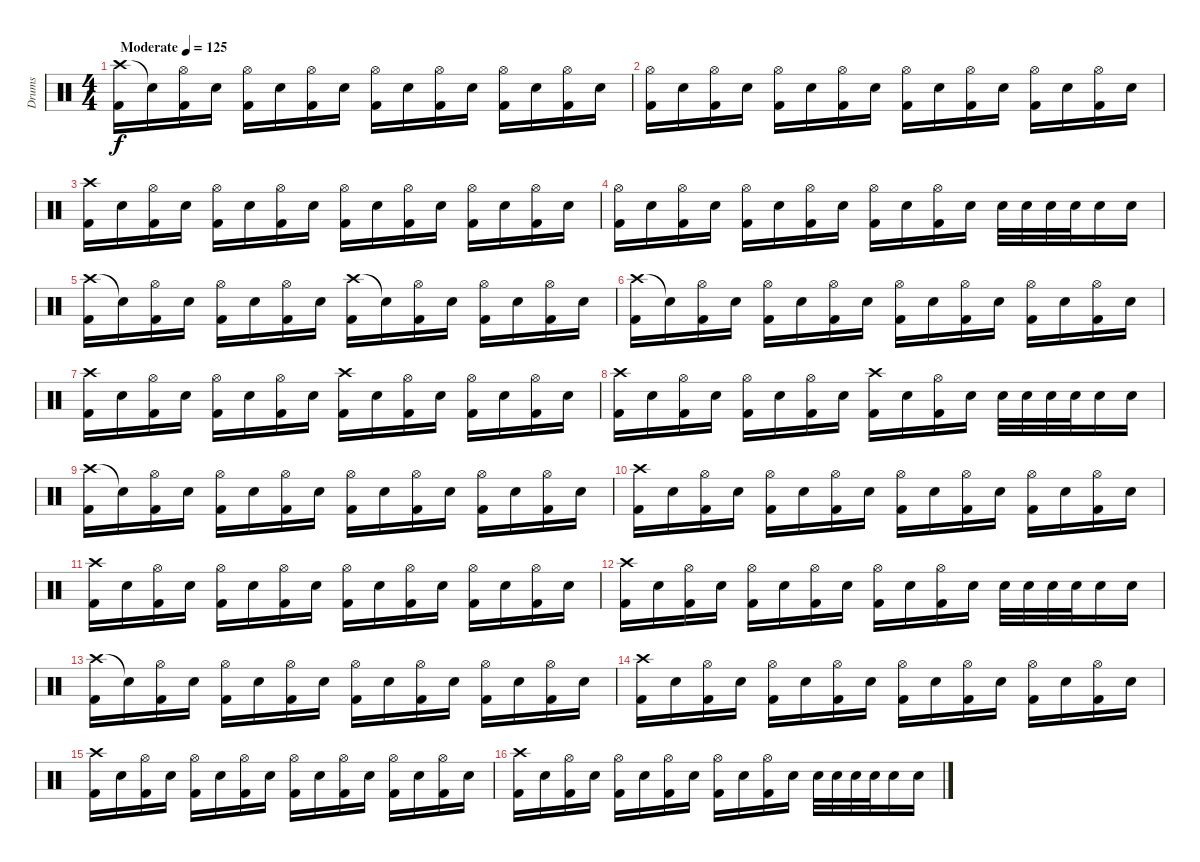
\track ("Drums" "Drums") {instrument percussion}
\staff {score}
\articulation defaults
\ts (4 4)
\tempo (125 "Moderate")
\clef neutral
\ks c
("Crash high (hit)" "Kick (hit) 2").16{dy f} "Snare (hit)"{t}.16 ("Hi-Hat (open)" "Kick (hit) 2").16 "Electric Snare (hit)".16 ("Hi-Hat (open)" "Kick (hit) 2").16 "Electric Snare (hit)".16 ("Hi-Hat (open)" "Kick (hit) 2").16 "Electric Snare (hit)".16 ("Hi-Hat (open)" "Kick (hit) 2").16 "Electric Snare (hit)".16 ("Hi-Hat (open)" "Kick (hit) 2").16 "Electric Snare (hit)".16 ("Hi-Hat (open)" "Kick (hit) 2").16 "Electric Snare (hit)".16 ("Hi-Hat (open)" "Kick (hit) 2").16 "Electric Snare (hit)".16 |
("Hi-Hat (open)" "Kick (hit) 2").16 "Electric Snare (hit)".16 ("Hi-Hat (open)" "Kick (hit) 2").16 "Electric Snare (hit)".16 ("Hi-Hat (open)" "Kick (hit) 2").16 "Electric Snare (hit)".16 ("Hi-Hat (open)" "Kick (hit) 2").16 "Electric Snare (hit)".16 ("Hi-Hat (open)" "Kick (hit) 2").16 "Electric Snare (hit)".16 ("Hi-Hat (open)" "Kick (hit) 2").16 "Electric Snare (hit)".16 ("Hi-Hat (open)" "Kick (hit) 2").16 "Electric Snare (hit)".16 ("Hi-Hat (open)" "Kick (hit) 2").16 "Electric Snare (hit)".16 |
("Crash high (hit)" "Kick (hit) 2").16 "Electric Snare (hit)".16 ("Hi-Hat (open)" "Kick (hit) 2").16 "Electric Snare (hit)".16 ("Hi-Hat (open)" "Kick (hit) 2").16 "Electric Snare (hit)".16 ("Hi-Hat (open)" "Kick (hit) 2").16 "Electric Snare (hit)".16 ("Hi-Hat (open)" "Kick (hit) 2").16 "Electric Snare (hit)".16 ("Hi-Hat (open)" "Kick (hit) 2").16 "Electric Snare (hit)".16 ("Hi-Hat (open)" "Kick (hit) 2").16 "Electric Snare (hit)".16 ("Hi-Hat (open)" "Kick (hit) 2").16 "Electric Snare (hit)".16 |
("Hi-Hat (open)" "Kick (hit) 2").16 "Electric Snare (hit)".16 ("Hi-Hat (open)" "Kick (hit) 2").16 "Electric Snare (hit)".16 ("Hi-Hat (open)" "Kick (hit) 2").16 "Electric Snare (hit)".16 ("Hi-Hat (open)" "Kick (hit) 2").16 "Electric Snare (hit)".16 ("Hi-Hat (open)" "Kick (hit) 2").16 "Electric Snare (hit)".16 ("Hi-Hat (open)" "Kick (hit) 2").16 "Electric Snare (hit)".16 "Electric Snare (hit)".32 "Electric Snare (hit)".32 "Electric Snare (hit)".32 "Electric Snare (hit)".32 "Electric Snare (hit)".16 "Electric Snare (hit)".16 |
("Crash high (hit)" "Kick (hit) 2").16 "Snare (hit)"{t}.16 ("Hi-Hat (open)" "Kick (hit) 2").16 "Electric Snare (hit)".16 ("Hi-Hat (open)" "Kick (hit) 2").16 "Electric Snare (hit)".16 ("Hi-Hat (open)" "Kick (hit) 2").16 "Electric Snare (hit)".16 ("Crash high (hit)" "Kick (hit) 2").16 "Snare (hit)"{t}.16 ("Hi-Hat (open)" "Kick (hit) 2").16 "Electric Snare (hit)".16 ("Hi-Hat (open)" "Kick (hit) 2").16 "Electric Snare (hit)".16 ("Hi-Hat (open)" "Kick (hit) 2").16 "Electric Snare (hit)".16 |
("Crash high (hit)" "Kick (hit) 2").16 "Snare (hit)"{t}.16 ("Hi-Hat (open)" "Kick (hit) 2").16 "Electric Snare (hit)".16 ("Hi-Hat (open)" "Kick (hit) 2").16 "Electric Snare (hit)".16 ("Hi-Hat (open)" "Kick (hit) 2").16 "Electric Snare (hit)".16 ("Hi-Hat (open)" "Kick (hit) 2").16 "Electric Snare (hit)".16 ("Hi-Hat (open)" "Kick (hit) 2").16 "Electric Snare (hit)".16 ("Hi-Hat (open)" "Kick (hit) 2").16 "Electric Snare (hit)".16 ("Hi-Hat (open)" "Kick (hit) 2").16 "Electric Snare (hit)".16 |
("Crash high (hit)" "Kick (hit) 2").16 "Electric Snare (hit)".16 ("Hi-Hat (open)" "Kick (hit) 2").16 "Electric Snare (hit)".16 ("Hi-Hat (open)" "Kick (hit) 2").16 "Electric Snare (hit)".16 ("Hi-Hat (open)" "Kick (hit) 2").16 "Electric Snare (hit)".16 ("Crash high (hit)" "Kick (hit) 2").16 "Electric Snare (hit)".16 ("Hi-Hat (open)" "Kick (hit) 2").16 "Electric Snare (hit)".16 ("Hi-Hat (open)" "Kick (hit) 2").16 "Electric Snare (hit)".16 ("Hi-Hat (open)" "Kick (hit) 2").16 "Electric Snare (hit)".16 |
("Crash high (hit)" "Kick (hit) 2").16 "Electric Snare (hit)".16 ("Hi-Hat (open)" "Kick (hit) 2").16 "Electric Snare (hit)".16 ("Hi-Hat (open)" "Kick (hit) 2").16 "Electric Snare (hit)".16 ("Hi-Hat (open)" "Kick (hit) 2").16 "Electric Snare (hit)".16 ("Crash high (hit)" "Kick (hit) 2").16 "Electric Snare (hit)".16 ("Hi-Hat (open)" "Kick (hit) 2").16 "Electric Snare (hit)".16 "Electric Snare (hit)".32 "Electric Snare (hit)".32 "Electric Snare (hit)".32 "Electric Snare (hit)".32 "Electric Snare (hit)".16 "Electric Snare (hit)".16 |
("Crash high (hit)" "Kick (hit) 2").16 "Snare (hit)"{t}.16 ("Hi-Hat (open)" "Kick (hit) 2").16 "Electric Snare (hit)".16 ("Hi-Hat (open)" "Kick (hit) 2").16 "Electric Snare (hit)".16 ("Hi-Hat (open)" "Kick (hit) 2").16 "Electric Snare (hit)".16 ("Hi-Hat (open)" "Kick (hit) 2").16 "Electric Snare (hit)".16 ("Hi-Hat (open)" "Kick (hit) 2").16 "Electric Snare (hit)".16 ("Hi-Hat (open)" "Kick (hit) 2").16 "Electric Snare (hit)".16 ("Hi-Hat (open)" "Kick (hit) 2").16 "Electric Snare (hit)".16 |
("Crash high (hit)" "Kick (hit) 2").16 "Electric Snare (hit)".16 ("Hi-Hat (open)" "Kick (hit) 2").16 "Electric Snare (hit)".16 ("Hi-Hat (open)" "Kick (hit) 2").16 "Electric Snare (hit)".16 ("Hi-Hat (open)" "Kick (hit) 2").16 "Electric Snare (hit)".16 ("Hi-Hat (open)" "Kick (hit) 2").16 "Electric Snare (hit)".16 ("Hi-Hat (open)" "Kick (hit) 2").16 "Electric Snare (hit)".16 ("Hi-Hat (open)" "Kick (hit) 2").16 "Electric Snare (hit)".16 ("Hi-Hat (open)" "Kick (hit) 2").16 "Electric Snare (hit)".16 |
("Crash high (hit)" "Kick (hit) 2").16 "Electric Snare (hit)".16 ("Hi-Hat (open)" "Kick (hit) 2").16 "Electric Snare (hit)".16 ("Hi-Hat (open)" "Kick (hit) 2").16 "Electric Snare (hit)".16 ("Hi-Hat (open)" "Kick (hit) 2").16 "Electric Snare (hit)".16 ("Hi-Hat (open)" "Kick (hit) 2").16 "Electric Snare (hit)".16 ("Hi-Hat (open)" "Kick (hit) 2").16 "Electric Snare (hit)".16 ("Hi-Hat (open)" "Kick (hit) 2").16 "Electric Snare (hit)".16 ("Hi-Hat (open)" "Kick (hit) 2").16 "Electric Snare (hit)".16 |
("Crash high (hit)" "Kick (hit) 2").16 "Electric Snare (hit)".16 ("Hi-Hat (open)" "Kick (hit) 2").16 "Electric Snare (hit)".16 ("Hi-Hat (open)" "Kick (hit) 2").16 "Electric Snare (hit)".16 ("Hi-Hat (open)" "Kick (hit) 2").16 "Electric Snare (hit)".16 ("Hi-Hat (open)" "Kick (hit) 2").16 "Electric Snare (hit)".16 ("Hi-Hat (open)" "Kick (hit) 2").16 "Electric Snare (hit)".16 "Electric Snare (hit)".32 "Electric Snare (hit)".32 "Electric Snare (hit)".32 "Electric Snare (hit)".32 "Electric Snare (hit)".16 "Electric Snare (hit)".16 |
("Crash high (hit)" "Kick (hit) 2").16 "Snare (hit)"{t}.16 ("Hi-Hat (open)" "Kick (hit) 2").16 "Electric Snare (hit)".16 ("Hi-Hat (open)" "Kick (hit) 2").16 "Electric Snare (hit)".16 ("Hi-Hat (open)" "Kick (hit) 2").16 "Electric Snare (hit)".16 ("Hi-Hat (open)" "Kick (hit) 2").16 "Electric Snare (hit)".16 ("Hi-Hat (open)" "Kick (hit) 2").16 "Electric Snare (hit)".16 ("Hi-Hat (open)" "Kick (hit) 2").16 "Electric Snare (hit)".16 ("Hi-Hat (open)" "Kick (hit) 2").16 "Electric Snare (hit)".16 |
("Crash high (hit)" "Kick (hit) 2").16 "Electric Snare (hit)".16 ("Hi-Hat (open)" "Kick (hit) 2").16 "Electric Snare (hit)".16 ("Hi-Hat (open)" "Kick (hit) 2").16 "Electric Snare (hit)".16 ("Hi-Hat (open)" "Kick (hit) 2").16 "Electric Snare (hit)".16 ("Hi-Hat (open)" "Kick (hit) 2").16 "Electric Snare (hit)".16 ("Hi-Hat (open)" "Kick (hit) 2").16 "Electric Snare (hit)".16 ("Hi-Hat (open)" "Kick (hit) 2").16 "Electric Snare (hit)".16 ("Hi-Hat (open)" "Kick (hit) 2").16 "Electric Snare (hit)".16 |
("Crash high (hit)" "Kick (hit) 2").16 "Electric Snare (hit)".16 ("Hi-Hat (open)" "Kick (hit) 2").16 "Electric Snare (hit)".16 ("Hi-Hat (open)" "Kick (hit) 2").16 "Electric Snare (hit)".16 ("Hi-Hat (open)" "Kick (hit) 2").16 "Electric Snare (hit)".16 ("Hi-Hat (open)" "Kick (hit) 2").16 "Electric Snare (hit)".16 ("Hi-Hat (open)" "Kick (hit) 2").16 "Electric Snare (hit)".16 ("Hi-Hat (open)" "Kick (hit) 2").16 "Electric Snare (hit)".16 ("Hi-Hat (open)" "Kick (hit) 2").16 "Electric Snare (hit)".16 |
("Crash high (hit)" "Kick (hit) 2").16 "Electric Snare (hit)".16 ("Hi-Hat (open)" "Kick (hit) 2").16 "Electric Snare (hit)".16 ("Hi-Hat (open)" "Kick (hit) 2").16 "Electric Snare (hit)".16 ("Hi-Hat (open)" "Kick (hit) 2").16 "Electric Snare (hit)".16 ("Hi-Hat (open)" "Kick (hit) 2").16 "Electric Snare (hit)".16 ("Hi-Hat (open)" "Kick (hit) 2").16 "Electric Snare (hit)".16 "Electric Snare (hit)".32 "Electric Snare (hit)".32 "Electric Snare (hit)".32 "Electric Snare (hit)".32 "Electric Snare (hit)".16 "Electric Snare (hit)".16
